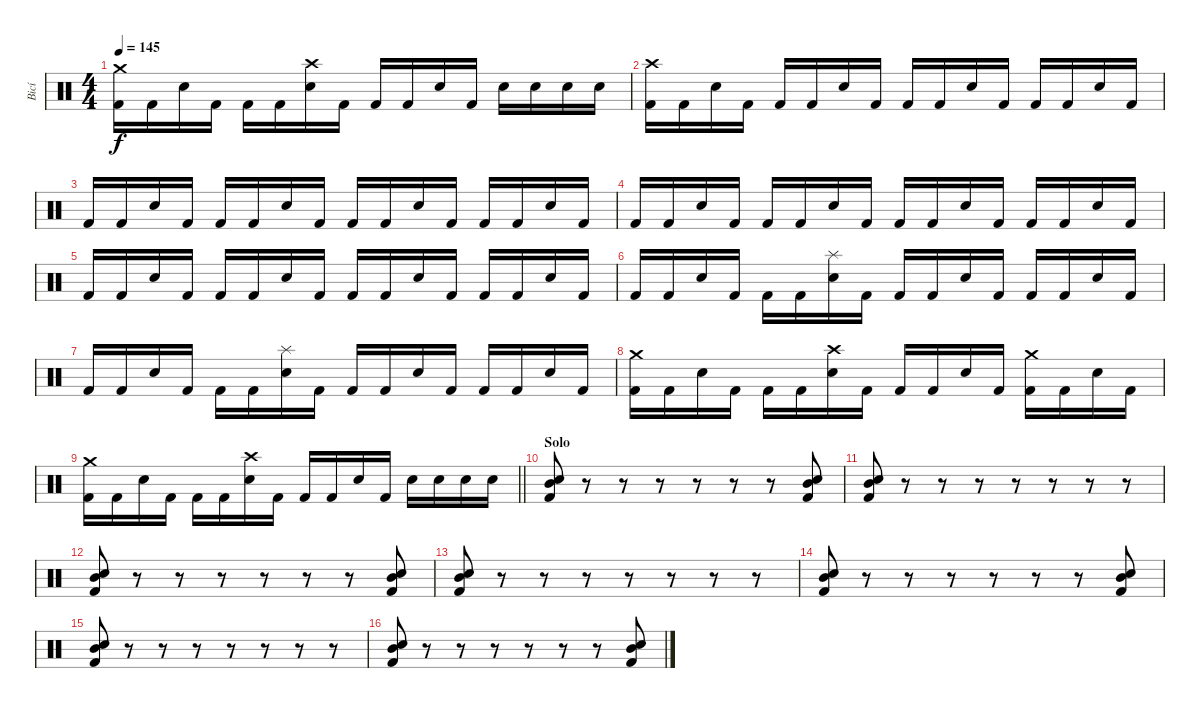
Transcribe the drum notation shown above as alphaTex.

\track ("Bicí" "Bicí") {instrument percussion}
\staff {score}
\articulation defaults
\ts (4 4)
\tempo 145
\clef neutral
\ks c
("Kick (hit) 2" "Crash medium (hit)").16{dy f} "Kick (hit) 2".16 "Electric Snare (hit)".16 "Kick (hit) 2".16 "Kick (hit) 2".16 "Kick (hit) 2".16 ("Electric Snare (hit)" "Crash high (hit)").16 "Kick (hit) 2".16 "Kick (hit) 2".16 "Kick (hit) 2".16 "Electric Snare (hit)".16 "Kick (hit) 2".16 "Electric Snare (hit)".16 "Electric Snare (hit)".16 "Electric Snare (hit)".16 "Electric Snare (hit)".16 |
("Kick (hit) 2" "Crash high (hit)").16 "Kick (hit) 2".16 "Electric Snare (hit)".16 "Kick (hit) 2".16 "Kick (hit) 2".16 "Kick (hit) 2".16 "Electric Snare (hit)".16 "Kick (hit) 2".16 "Kick (hit) 2".16 "Kick (hit) 2".16 "Electric Snare (hit)".16 "Kick (hit) 2".16 "Kick (hit) 2".16 "Kick (hit) 2".16 "Electric Snare (hit)".16 "Kick (hit) 2".16 |
"Kick (hit) 2".16 "Kick (hit) 2".16 "Electric Snare (hit)".16 "Kick (hit) 2".16 "Kick (hit) 2".16 "Kick (hit) 2".16 "Electric Snare (hit)".16 "Kick (hit) 2".16 "Kick (hit) 2".16 "Kick (hit) 2".16 "Electric Snare (hit)".16 "Kick (hit) 2".16 "Kick (hit) 2".16 "Kick (hit) 2".16 "Electric Snare (hit)".16 "Kick (hit) 2".16 |
"Kick (hit) 2".16 "Kick (hit) 2".16 "Electric Snare (hit)".16 "Kick (hit) 2".16 "Kick (hit) 2".16 "Kick (hit) 2".16 "Electric Snare (hit)".16 "Kick (hit) 2".16 "Kick (hit) 2".16 "Kick (hit) 2".16 "Electric Snare (hit)".16 "Kick (hit) 2".16 "Kick (hit) 2".16 "Kick (hit) 2".16 "Electric Snare (hit)".16 "Kick (hit) 2".16 |
"Kick (hit) 2".16 "Kick (hit) 2".16 "Electric Snare (hit)".16 "Kick (hit) 2".16 "Kick (hit) 2".16 "Kick (hit) 2".16 "Electric Snare (hit)".16 "Kick (hit) 2".16 "Kick (hit) 2".16 "Kick (hit) 2".16 "Electric Snare (hit)".16 "Kick (hit) 2".16 "Kick (hit) 2".16 "Kick (hit) 2".16 "Electric Snare (hit)".16 "Kick (hit) 2".16 |
"Kick (hit) 2".16 "Kick (hit) 2".16 "Electric Snare (hit)".16 "Kick (hit) 2".16 "Kick (hit) 2".16 "Kick (hit) 2".16 ("Electric Snare (hit)" "Splash (hit)").16 "Kick (hit) 2".16 "Kick (hit) 2".16 "Kick (hit) 2".16 "Electric Snare (hit)".16 "Kick (hit) 2".16 "Kick (hit) 2".16 "Kick (hit) 2".16 "Electric Snare (hit)".16 "Kick (hit) 2".16 |
"Kick (hit) 2".16 "Kick (hit) 2".16 "Electric Snare (hit)".16 "Kick (hit) 2".16 "Kick (hit) 2".16 "Kick (hit) 2".16 ("Electric Snare (hit)" "Splash (hit)").16 "Kick (hit) 2".16 "Kick (hit) 2".16 "Kick (hit) 2".16 "Electric Snare (hit)".16 "Kick (hit) 2".16 "Kick (hit) 2".16 "Kick (hit) 2".16 "Electric Snare (hit)".16 "Kick (hit) 2".16 |
("Kick (hit) 2" "Crash medium (hit)").16 "Kick (hit) 2".16 "Electric Snare (hit)".16 "Kick (hit) 2".16 "Kick (hit) 2".16 "Kick (hit) 2".16 ("Electric Snare (hit)" "Crash high (hit)").16 "Kick (hit) 2".16 "Kick (hit) 2".16 "Kick (hit) 2".16 "Electric Snare (hit)".16 "Kick (hit) 2".16 ("Kick (hit) 2" "Crash medium (hit)").16 "Kick (hit) 2".16 "Electric Snare (hit)".16 "Kick (hit) 2".16 |
\barLineRight lightlight
("Kick (hit) 2" "Crash medium (hit)").16 "Kick (hit) 2".16 "Electric Snare (hit)".16 "Kick (hit) 2".16 "Kick (hit) 2".16 "Kick (hit) 2".16 ("Electric Snare (hit)" "Crash high (hit)").16 "Kick (hit) 2".16 "Kick (hit) 2".16 "Kick (hit) 2".16 "Electric Snare (hit)".16 "Kick (hit) 2".16 "Electric Snare (hit)".16 "Electric Snare (hit)".16 "Electric Snare (hit)".16 "Electric Snare (hit)".16 |
\section ("" "Solo")
("Kick (hit) 2" "Electric Snare (hit)" "Mid Tom (hit)").8 r.8 r.8 r.8 r.8 r.8 r.8 ("Kick (hit) 2" "Electric Snare (hit)" "Mid Tom (hit)").8 |
("Kick (hit) 2" "Electric Snare (hit)" "Mid Tom (hit)").8 r.8 r.8 r.8 r.8 r.8 r.8 r.8 |
("Kick (hit) 2" "Electric Snare (hit)" "Mid Tom (hit)").8 r.8 r.8 r.8 r.8 r.8 r.8 ("Kick (hit) 2" "Electric Snare (hit)" "Mid Tom (hit)").8 |
("Kick (hit) 2" "Electric Snare (hit)" "Mid Tom (hit)").8 r.8 r.8 r.8 r.8 r.8 r.8 r.8 |
("Kick (hit) 2" "Electric Snare (hit)" "Mid Tom (hit)").8 r.8 r.8 r.8 r.8 r.8 r.8 ("Kick (hit) 2" "Electric Snare (hit)" "Mid Tom (hit)").8 |
("Kick (hit) 2" "Electric Snare (hit)" "Mid Tom (hit)").8 r.8 r.8 r.8 r.8 r.8 r.8 r.8 |
("Kick (hit) 2" "Electric Snare (hit)" "Mid Tom (hit)").8 r.8 r.8 r.8 r.8 r.8 r.8 ("Kick (hit) 2" "Electric Snare (hit)" "Mid Tom (hit)").8
